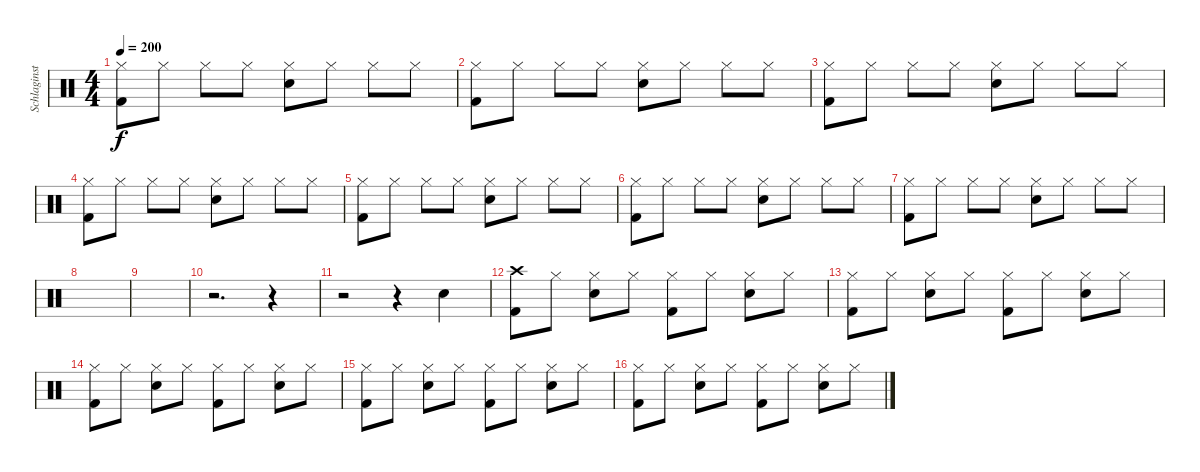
\track ("Schlaginstrumente - Auswahl" "Schlaginst") {instrument percussion}
\staff {score}
\articulation defaults
\ts (4 4)
\tempo 200
\clef neutral
\ks c
("Hi-Hat (closed)" "Kick (hit) 2").8{dy f} "Hi-Hat (closed)".8 "Hi-Hat (closed)".8 "Hi-Hat (closed)".8 ("Hi-Hat (closed)" "Snare (hit) 2").8 "Hi-Hat (closed)".8 "Hi-Hat (closed)".8 "Hi-Hat (closed)".8 |
("Hi-Hat (closed)" "Kick (hit) 2").8 "Hi-Hat (closed)".8 "Hi-Hat (closed)".8 "Hi-Hat (closed)".8 ("Hi-Hat (closed)" "Snare (hit) 2").8 "Hi-Hat (closed)".8 "Hi-Hat (closed)".8 "Hi-Hat (closed)".8 |
("Hi-Hat (closed)" "Kick (hit) 2").8 "Hi-Hat (closed)".8 "Hi-Hat (closed)".8 "Hi-Hat (closed)".8 ("Hi-Hat (closed)" "Snare (hit) 2").8 "Hi-Hat (closed)".8 "Hi-Hat (closed)".8 "Hi-Hat (closed)".8 |
("Hi-Hat (closed)" "Kick (hit) 2").8 "Hi-Hat (closed)".8 "Hi-Hat (closed)".8 "Hi-Hat (closed)".8 ("Hi-Hat (closed)" "Snare (hit) 2").8 "Hi-Hat (closed)".8 "Hi-Hat (closed)".8 "Hi-Hat (closed)".8 |
("Hi-Hat (closed)" "Kick (hit) 2").8 "Hi-Hat (closed)".8 "Hi-Hat (closed)".8 "Hi-Hat (closed)".8 ("Hi-Hat (closed)" "Snare (hit) 2").8 "Hi-Hat (closed)".8 "Hi-Hat (closed)".8 "Hi-Hat (closed)".8 |
("Hi-Hat (closed)" "Kick (hit) 2").8 "Hi-Hat (closed)".8 "Hi-Hat (closed)".8 "Hi-Hat (closed)".8 ("Hi-Hat (closed)" "Snare (hit) 2").8 "Hi-Hat (closed)".8 "Hi-Hat (closed)".8 "Hi-Hat (closed)".8 |
("Hi-Hat (closed)" "Kick (hit) 2").8 "Hi-Hat (closed)".8 "Hi-Hat (closed)".8 "Hi-Hat (closed)".8 ("Hi-Hat (closed)" "Snare (hit) 2").8 "Hi-Hat (closed)".8 "Hi-Hat (closed)".8 "Hi-Hat (closed)".8 |
|
|
r.2{d} r.4 |
r.2 r.4 "Snare (hit) 2".4 |
("Crash high (hit)" "Kick (hit) 2").8 "Hi-Hat (closed)".8 ("Hi-Hat (closed)" "Snare (hit) 2").8 "Hi-Hat (closed)".8 ("Hi-Hat (closed)" "Kick (hit) 2").8 "Hi-Hat (closed)".8 ("Hi-Hat (closed)" "Snare (hit) 2").8 "Hi-Hat (closed)".8 |
("Hi-Hat (closed)" "Kick (hit) 2").8 "Hi-Hat (closed)".8 ("Hi-Hat (closed)" "Snare (hit) 2").8 "Hi-Hat (closed)".8 ("Hi-Hat (closed)" "Kick (hit) 2").8 "Hi-Hat (closed)".8 ("Hi-Hat (closed)" "Snare (hit) 2").8 "Hi-Hat (closed)".8 |
("Hi-Hat (closed)" "Kick (hit) 2").8 "Hi-Hat (closed)".8 ("Hi-Hat (closed)" "Snare (hit) 2").8 "Hi-Hat (closed)".8 ("Hi-Hat (closed)" "Kick (hit) 2").8 "Hi-Hat (closed)".8 ("Hi-Hat (closed)" "Snare (hit) 2").8 "Hi-Hat (closed)".8 |
("Hi-Hat (closed)" "Kick (hit) 2").8 "Hi-Hat (closed)".8 ("Hi-Hat (closed)" "Snare (hit) 2").8 "Hi-Hat (closed)".8 ("Hi-Hat (closed)" "Kick (hit) 2").8 "Hi-Hat (closed)".8 ("Hi-Hat (closed)" "Snare (hit) 2").8 "Hi-Hat (closed)".8 |
("Hi-Hat (closed)" "Kick (hit) 2").8 "Hi-Hat (closed)".8 ("Hi-Hat (closed)" "Snare (hit) 2").8 "Hi-Hat (closed)".8 ("Hi-Hat (closed)" "Kick (hit) 2").8 "Hi-Hat (closed)".8 ("Hi-Hat (closed)" "Snare (hit) 2").8 "Hi-Hat (closed)".8
